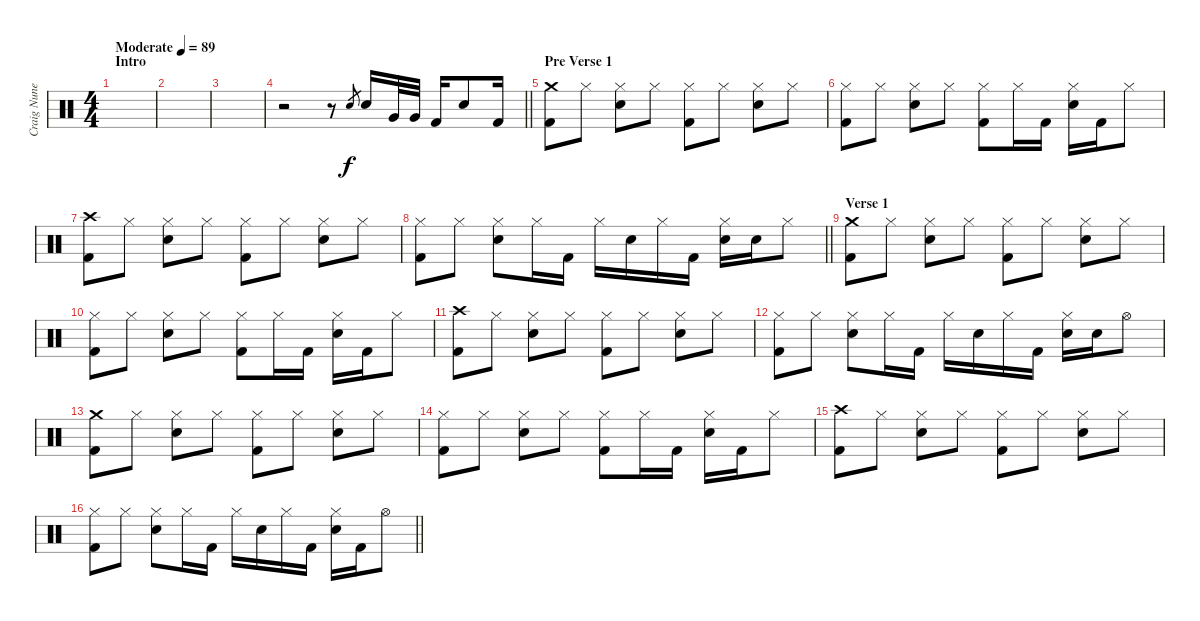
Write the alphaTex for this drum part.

\track ("Craig Nunenmacher" "Craig Nune") {instrument percussion}
\staff {score}
\articulation defaults
\ts (4 4)
\section ("" "Intro")
\tempo (89 "Moderate")
\clef neutral
\ks c
|
|
|
\barLineRight lightlight
r.2 r.8 "Snare (hit) 2".8{gr} "Snare (hit) 2".16 "Very Low Tom (hit)".32 "Very Low Tom (hit)".32 "Kick (hit) 2".16 "Snare (hit) 2".8 "Kick (hit) 2".16 |
\section ("" "Pre Verse 1")
("Crash medium (hit)" "Kick (hit) 2").8 "Hi-Hat (closed)".8 ("Hi-Hat (closed)" "Snare (hit) 2").8 "Hi-Hat (closed)".8 ("Hi-Hat (closed)" "Kick (hit) 2").8 "Hi-Hat (closed)".8 ("Hi-Hat (closed)" "Snare (hit) 2").8 "Hi-Hat (closed)".8 |
("Hi-Hat (closed)" "Kick (hit) 2").8 "Hi-Hat (closed)".8 ("Hi-Hat (closed)" "Snare (hit) 2").8 "Hi-Hat (closed)".8 ("Hi-Hat (closed)" "Kick (hit) 2").8 "Hi-Hat (closed)".16 "Kick (hit) 2".16 ("Hi-Hat (closed)" "Snare (hit) 2").16 "Kick (hit) 2".16 "Hi-Hat (closed)".8 |
("Crash high (hit)" "Kick (hit) 2").8 "Hi-Hat (closed)".8 ("Hi-Hat (closed)" "Snare (hit) 2").8 "Hi-Hat (closed)".8 ("Hi-Hat (closed)" "Kick (hit) 2").8 "Hi-Hat (closed)".8 ("Hi-Hat (closed)" "Snare (hit) 2").8 "Hi-Hat (closed)".8 |
\barLineRight lightlight
("Hi-Hat (closed)" "Kick (hit) 2").8 "Hi-Hat (closed)".8 ("Hi-Hat (closed)" "Snare (hit) 2").8 "Hi-Hat (closed)".16 "Kick (hit) 2".16 "Hi-Hat (closed)".16 "Snare (hit) 2".16 "Hi-Hat (closed)".16 "Kick (hit) 2".16 ("Hi-Hat (closed)" "Snare (hit) 2").16 "Snare (hit) 2".16 "Hi-Hat (closed)".8 |
\section ("" "Verse 1")
("Crash medium (hit)" "Kick (hit) 2").8 "Hi-Hat (closed)".8 ("Hi-Hat (closed)" "Snare (hit) 2").8 "Hi-Hat (closed)".8 ("Hi-Hat (closed)" "Kick (hit) 2").8 "Hi-Hat (closed)".8 ("Hi-Hat (closed)" "Snare (hit) 2").8 "Hi-Hat (closed)".8 |
("Hi-Hat (closed)" "Kick (hit) 2").8 "Hi-Hat (closed)".8 ("Hi-Hat (closed)" "Snare (hit) 2").8 "Hi-Hat (closed)".8 ("Hi-Hat (closed)" "Kick (hit) 2").8 "Hi-Hat (closed)".16 "Kick (hit) 2".16 ("Hi-Hat (closed)" "Snare (hit) 2").16 "Kick (hit) 2".16 "Hi-Hat (closed)".8 |
("Crash high (hit)" "Kick (hit) 2").8 "Hi-Hat (closed)".8 ("Hi-Hat (closed)" "Snare (hit) 2").8 "Hi-Hat (closed)".8 ("Hi-Hat (closed)" "Kick (hit) 2").8 "Hi-Hat (closed)".8 ("Hi-Hat (closed)" "Snare (hit) 2").8 "Hi-Hat (closed)".8 |
("Hi-Hat (closed)" "Kick (hit) 2").8 "Hi-Hat (closed)".8 ("Hi-Hat (closed)" "Snare (hit) 2").8 "Hi-Hat (closed)".16 "Kick (hit) 2".16 "Hi-Hat (closed)".16 "Snare (hit) 2".16 "Hi-Hat (closed)".16 "Kick (hit) 2".16 ("Hi-Hat (closed)" "Snare (hit) 2").16 "Snare (hit) 2".16 "Hi-Hat (open)".8 |
("Crash medium (hit)" "Kick (hit) 2").8 "Hi-Hat (closed)".8 ("Hi-Hat (closed)" "Snare (hit) 2").8 "Hi-Hat (closed)".8 ("Hi-Hat (closed)" "Kick (hit) 2").8 "Hi-Hat (closed)".8 ("Hi-Hat (closed)" "Snare (hit) 2").8 "Hi-Hat (closed)".8 |
("Hi-Hat (closed)" "Kick (hit) 2").8 "Hi-Hat (closed)".8 ("Hi-Hat (closed)" "Snare (hit) 2").8 "Hi-Hat (closed)".8 ("Hi-Hat (closed)" "Kick (hit) 2").8 "Hi-Hat (closed)".16 "Kick (hit) 2".16 ("Hi-Hat (closed)" "Snare (hit) 2").16 "Kick (hit) 2".16 "Hi-Hat (closed)".8 |
("Crash high (hit)" "Kick (hit) 2").8 "Hi-Hat (closed)".8 ("Hi-Hat (closed)" "Snare (hit) 2").8 "Hi-Hat (closed)".8 ("Hi-Hat (closed)" "Kick (hit) 2").8 "Hi-Hat (closed)".8 ("Hi-Hat (closed)" "Snare (hit) 2").8 "Hi-Hat (closed)".8 |
\barLineRight lightlight
("Hi-Hat (closed)" "Kick (hit) 2").8 "Hi-Hat (closed)".8 ("Hi-Hat (closed)" "Snare (hit) 2").8 "Hi-Hat (closed)".16 "Kick (hit) 2".16 "Hi-Hat (closed)".16 "Snare (hit) 2".16 "Hi-Hat (closed)".16 "Kick (hit) 2".16 ("Hi-Hat (closed)" "Snare (hit) 2").16 "Kick (hit) 2".16 "Hi-Hat (open)".8
